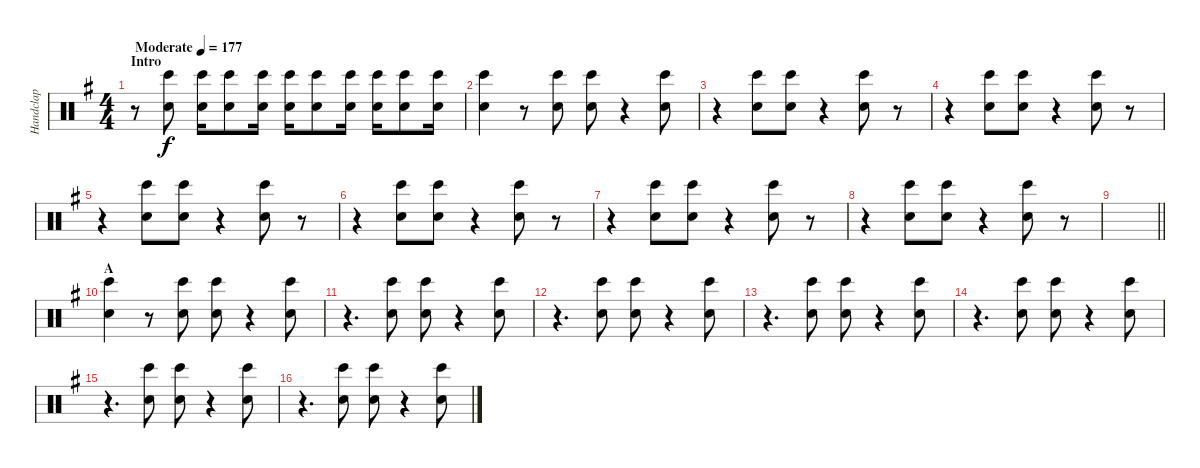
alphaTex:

\track ("Handclap" "Handclap") {instrument percussion}
\staff {score}
\articulation defaults
\ts (4 4)
\section ("" "Intro")
\tempo (177 "Moderate")
\clef neutral
\ks g
r.8{dy f volume 5} ("Hand Clap (hit)" "Bongo High (hit)").8{volume 11} ("Hand Clap (hit)" "Bongo High (hit)").16 ("Hand Clap (hit)" "Bongo High (hit)").8 ("Hand Clap (hit)" "Bongo High (hit)").16 ("Hand Clap (hit)" "Bongo High (hit)").16 ("Hand Clap (hit)" "Bongo High (hit)").8 ("Hand Clap (hit)" "Bongo High (hit)").16 ("Hand Clap (hit)" "Bongo High (hit)").16 ("Hand Clap (hit)" "Bongo High (hit)").8 ("Hand Clap (hit)" "Bongo High (hit)").16 |
("Hand Clap (hit)" "Bongo High (hit)").4 r.8 ("Hand Clap (hit)" "Bongo High (hit)").8 ("Hand Clap (hit)" "Bongo High (hit)").8 r.4 ("Hand Clap (hit)" "Bongo High (hit)").8 |
r.4 ("Hand Clap (hit)" "Bongo High (hit)").8 ("Hand Clap (hit)" "Bongo High (hit)").8 r.4 ("Hand Clap (hit)" "Bongo High (hit)").8 r.8 |
r.4 ("Hand Clap (hit)" "Bongo High (hit)").8 ("Hand Clap (hit)" "Bongo High (hit)").8 r.4 ("Hand Clap (hit)" "Bongo High (hit)").8 r.8 |
r.4 ("Hand Clap (hit)" "Bongo High (hit)").8 ("Hand Clap (hit)" "Bongo High (hit)").8 r.4 ("Hand Clap (hit)" "Bongo High (hit)").8 r.8 |
r.4 ("Hand Clap (hit)" "Bongo High (hit)").8 ("Hand Clap (hit)" "Bongo High (hit)").8 r.4 ("Hand Clap (hit)" "Bongo High (hit)").8 r.8 |
r.4 ("Hand Clap (hit)" "Bongo High (hit)").8 ("Hand Clap (hit)" "Bongo High (hit)").8 r.4 ("Hand Clap (hit)" "Bongo High (hit)").8 r.8 |
r.4 ("Hand Clap (hit)" "Bongo High (hit)").8 ("Hand Clap (hit)" "Bongo High (hit)").8 r.4 ("Hand Clap (hit)" "Bongo High (hit)").8 r.8 |
\barLineRight lightlight
|
\section ("" "A")
("Hand Clap (hit)" "Bongo High (hit)").4 r.8 ("Hand Clap (hit)" "Bongo High (hit)").8 ("Hand Clap (hit)" "Bongo High (hit)").8 r.4 ("Hand Clap (hit)" "Bongo High (hit)").8 |
r.4{d} ("Hand Clap (hit)" "Bongo High (hit)").8 ("Hand Clap (hit)" "Bongo High (hit)").8 r.4 ("Hand Clap (hit)" "Bongo High (hit)").8 |
r.4{d} ("Hand Clap (hit)" "Bongo High (hit)").8 ("Hand Clap (hit)" "Bongo High (hit)").8 r.4 ("Hand Clap (hit)" "Bongo High (hit)").8 |
r.4{d} ("Hand Clap (hit)" "Bongo High (hit)").8 ("Hand Clap (hit)" "Bongo High (hit)").8 r.4 ("Hand Clap (hit)" "Bongo High (hit)").8 |
r.4{d} ("Hand Clap (hit)" "Bongo High (hit)").8 ("Hand Clap (hit)" "Bongo High (hit)").8 r.4 ("Hand Clap (hit)" "Bongo High (hit)").8 |
r.4{d} ("Hand Clap (hit)" "Bongo High (hit)").8 ("Hand Clap (hit)" "Bongo High (hit)").8 r.4 ("Hand Clap (hit)" "Bongo High (hit)").8 |
r.4{d} ("Hand Clap (hit)" "Bongo High (hit)").8 ("Hand Clap (hit)" "Bongo High (hit)").8 r.4 ("Hand Clap (hit)" "Bongo High (hit)").8
